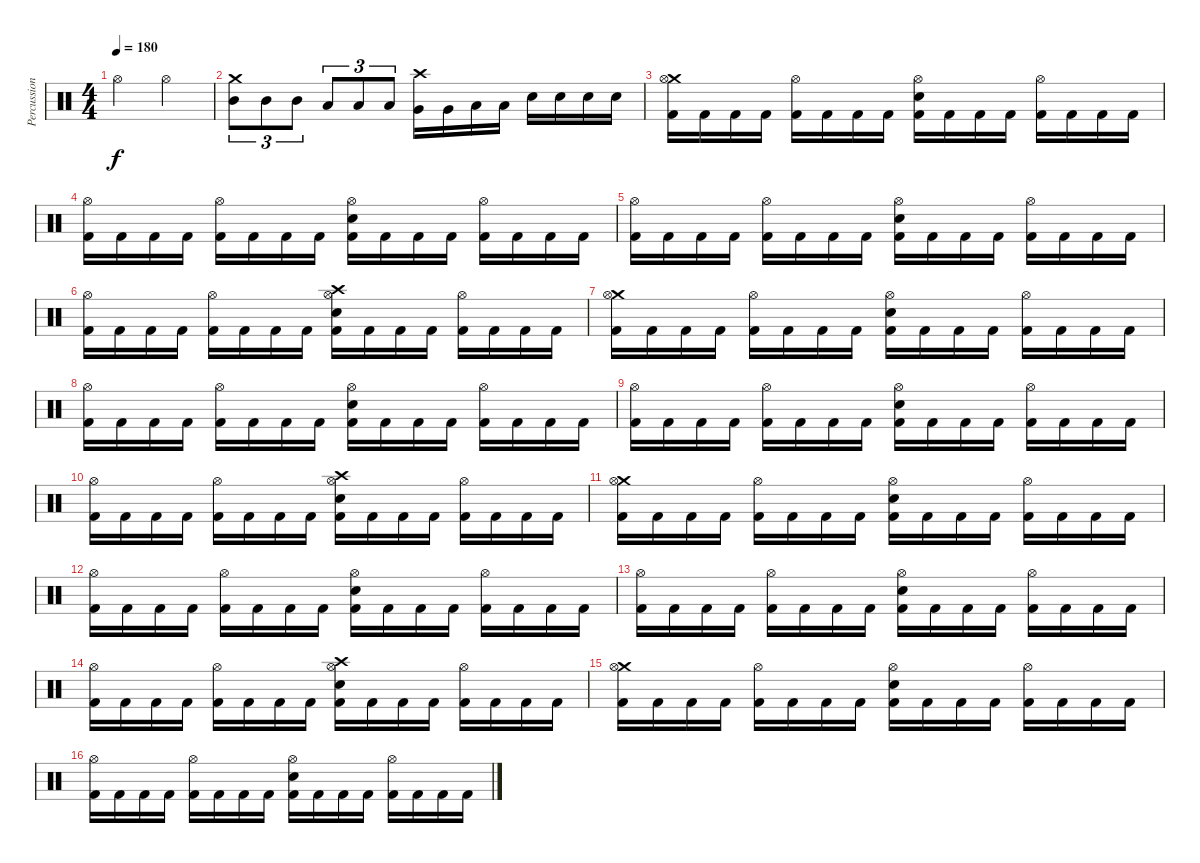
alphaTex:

\track ("Percussion" "Percussion") {instrument percussion}
\staff {score}
\articulation defaults
\ts (4 4)
\tempo 180
\clef neutral
\ks c "Hi-Hat (open)".2{dy f} "Hi-Hat (open)".2
|
("Crash medium (hit)" "Mid Tom (hit)").8{tu (3 2)} "Mid Tom (hit)".8{tu (3 2)} "Mid Tom (hit)".8{tu (3 2)} "Low Tom (hit)".8{tu (3 2)} "Low Tom (hit)".8{tu (3 2)} "Low Tom (hit)".8{tu (3 2)} ("Crash high (hit)" "Very Low Tom (hit)").16 "Very Low Tom (hit)".16 "Low Floor Tom (hit)".16 "Low Floor Tom (hit)".16 "Electric Snare (hit)".16 "Electric Snare (hit)".16 "Electric Snare (hit)".16 "Electric Snare (hit)".16 |
("Crash medium (hit)" "Hi-Hat (open)" "Kick (hit) 2").16 "Kick (hit) 2".16 "Kick (hit) 2".16 "Kick (hit) 2".16 ("Hi-Hat (open)" "Kick (hit) 2").16 "Kick (hit) 2".16 "Kick (hit) 2".16 "Kick (hit) 2".16 ("Hi-Hat (open)" "Electric Snare (hit)" "Kick (hit) 2").16 "Kick (hit) 2".16 "Kick (hit) 2".16 "Kick (hit) 2".16 ("Hi-Hat (open)" "Kick (hit) 2").16 "Kick (hit) 2".16 "Kick (hit) 2".16 "Kick (hit) 2".16 |
("Hi-Hat (open)" "Kick (hit) 2").16 "Kick (hit) 2".16 "Kick (hit) 2".16 "Kick (hit) 2".16 ("Hi-Hat (open)" "Kick (hit) 2").16 "Kick (hit) 2".16 "Kick (hit) 2".16 "Kick (hit) 2".16 ("Hi-Hat (open)" "Electric Snare (hit)" "Kick (hit) 2").16 "Kick (hit) 2".16 "Kick (hit) 2".16 "Kick (hit) 2".16 ("Hi-Hat (open)" "Kick (hit) 2").16 "Kick (hit) 2".16 "Kick (hit) 2".16 "Kick (hit) 2".16 |
("Hi-Hat (open)" "Kick (hit) 2").16 "Kick (hit) 2".16 "Kick (hit) 2".16 "Kick (hit) 2".16 ("Hi-Hat (open)" "Kick (hit) 2").16 "Kick (hit) 2".16 "Kick (hit) 2".16 "Kick (hit) 2".16 ("Hi-Hat (open)" "Electric Snare (hit)" "Kick (hit) 2").16 "Kick (hit) 2".16 "Kick (hit) 2".16 "Kick (hit) 2".16 ("Hi-Hat (open)" "Kick (hit) 2").16 "Kick (hit) 2".16 "Kick (hit) 2".16 "Kick (hit) 2".16 |
("Hi-Hat (open)" "Kick (hit) 2").16 "Kick (hit) 2".16 "Kick (hit) 2".16 "Kick (hit) 2".16 ("Hi-Hat (open)" "Kick (hit) 2").16 "Kick (hit) 2".16 "Kick (hit) 2".16 "Kick (hit) 2".16 ("Crash high (hit)" "Hi-Hat (open)" "Electric Snare (hit)" "Kick (hit) 2").16 "Kick (hit) 2".16 "Kick (hit) 2".16 "Kick (hit) 2".16 ("Hi-Hat (open)" "Kick (hit) 2").16 "Kick (hit) 2".16 "Kick (hit) 2".16 "Kick (hit) 2".16 |
("Crash medium (hit)" "Hi-Hat (open)" "Kick (hit) 2").16 "Kick (hit) 2".16 "Kick (hit) 2".16 "Kick (hit) 2".16 ("Hi-Hat (open)" "Kick (hit) 2").16 "Kick (hit) 2".16 "Kick (hit) 2".16 "Kick (hit) 2".16 ("Hi-Hat (open)" "Electric Snare (hit)" "Kick (hit) 2").16 "Kick (hit) 2".16 "Kick (hit) 2".16 "Kick (hit) 2".16 ("Hi-Hat (open)" "Kick (hit) 2").16 "Kick (hit) 2".16 "Kick (hit) 2".16 "Kick (hit) 2".16 |
("Hi-Hat (open)" "Kick (hit) 2").16 "Kick (hit) 2".16 "Kick (hit) 2".16 "Kick (hit) 2".16 ("Hi-Hat (open)" "Kick (hit) 2").16 "Kick (hit) 2".16 "Kick (hit) 2".16 "Kick (hit) 2".16 ("Hi-Hat (open)" "Electric Snare (hit)" "Kick (hit) 2").16 "Kick (hit) 2".16 "Kick (hit) 2".16 "Kick (hit) 2".16 ("Hi-Hat (open)" "Kick (hit) 2").16 "Kick (hit) 2".16 "Kick (hit) 2".16 "Kick (hit) 2".16 |
("Hi-Hat (open)" "Kick (hit) 2").16 "Kick (hit) 2".16 "Kick (hit) 2".16 "Kick (hit) 2".16 ("Hi-Hat (open)" "Kick (hit) 2").16 "Kick (hit) 2".16 "Kick (hit) 2".16 "Kick (hit) 2".16 ("Hi-Hat (open)" "Electric Snare (hit)" "Kick (hit) 2").16 "Kick (hit) 2".16 "Kick (hit) 2".16 "Kick (hit) 2".16 ("Hi-Hat (open)" "Kick (hit) 2").16 "Kick (hit) 2".16 "Kick (hit) 2".16 "Kick (hit) 2".16 |
("Hi-Hat (open)" "Kick (hit) 2").16 "Kick (hit) 2".16 "Kick (hit) 2".16 "Kick (hit) 2".16 ("Hi-Hat (open)" "Kick (hit) 2").16 "Kick (hit) 2".16 "Kick (hit) 2".16 "Kick (hit) 2".16 ("Crash high (hit)" "Hi-Hat (open)" "Electric Snare (hit)" "Kick (hit) 2").16 "Kick (hit) 2".16 "Kick (hit) 2".16 "Kick (hit) 2".16 ("Hi-Hat (open)" "Kick (hit) 2").16 "Kick (hit) 2".16 "Kick (hit) 2".16 "Kick (hit) 2".16 |
("Crash medium (hit)" "Hi-Hat (open)" "Kick (hit) 2").16 "Kick (hit) 2".16 "Kick (hit) 2".16 "Kick (hit) 2".16 ("Hi-Hat (open)" "Kick (hit) 2").16 "Kick (hit) 2".16 "Kick (hit) 2".16 "Kick (hit) 2".16 ("Hi-Hat (open)" "Electric Snare (hit)" "Kick (hit) 2").16 "Kick (hit) 2".16 "Kick (hit) 2".16 "Kick (hit) 2".16 ("Hi-Hat (open)" "Kick (hit) 2").16 "Kick (hit) 2".16 "Kick (hit) 2".16 "Kick (hit) 2".16 |
("Hi-Hat (open)" "Kick (hit) 2").16 "Kick (hit) 2".16 "Kick (hit) 2".16 "Kick (hit) 2".16 ("Hi-Hat (open)" "Kick (hit) 2").16 "Kick (hit) 2".16 "Kick (hit) 2".16 "Kick (hit) 2".16 ("Hi-Hat (open)" "Electric Snare (hit)" "Kick (hit) 2").16 "Kick (hit) 2".16 "Kick (hit) 2".16 "Kick (hit) 2".16 ("Hi-Hat (open)" "Kick (hit) 2").16 "Kick (hit) 2".16 "Kick (hit) 2".16 "Kick (hit) 2".16 |
("Hi-Hat (open)" "Kick (hit) 2").16 "Kick (hit) 2".16 "Kick (hit) 2".16 "Kick (hit) 2".16 ("Hi-Hat (open)" "Kick (hit) 2").16 "Kick (hit) 2".16 "Kick (hit) 2".16 "Kick (hit) 2".16 ("Hi-Hat (open)" "Electric Snare (hit)" "Kick (hit) 2").16 "Kick (hit) 2".16 "Kick (hit) 2".16 "Kick (hit) 2".16 ("Hi-Hat (open)" "Kick (hit) 2").16 "Kick (hit) 2".16 "Kick (hit) 2".16 "Kick (hit) 2".16 |
("Hi-Hat (open)" "Kick (hit) 2").16 "Kick (hit) 2".16 "Kick (hit) 2".16 "Kick (hit) 2".16 ("Hi-Hat (open)" "Kick (hit) 2").16 "Kick (hit) 2".16 "Kick (hit) 2".16 "Kick (hit) 2".16 ("Crash high (hit)" "Hi-Hat (open)" "Electric Snare (hit)" "Kick (hit) 2").16 "Kick (hit) 2".16 "Kick (hit) 2".16 "Kick (hit) 2".16 ("Hi-Hat (open)" "Kick (hit) 2").16 "Kick (hit) 2".16 "Kick (hit) 2".16 "Kick (hit) 2".16 |
("Crash medium (hit)" "Hi-Hat (open)" "Kick (hit) 2").16 "Kick (hit) 2".16 "Kick (hit) 2".16 "Kick (hit) 2".16 ("Hi-Hat (open)" "Kick (hit) 2").16 "Kick (hit) 2".16 "Kick (hit) 2".16 "Kick (hit) 2".16 ("Hi-Hat (open)" "Electric Snare (hit)" "Kick (hit) 2").16 "Kick (hit) 2".16 "Kick (hit) 2".16 "Kick (hit) 2".16 ("Hi-Hat (open)" "Kick (hit) 2").16 "Kick (hit) 2".16 "Kick (hit) 2".16 "Kick (hit) 2".16 |
("Hi-Hat (open)" "Kick (hit) 2").16 "Kick (hit) 2".16 "Kick (hit) 2".16 "Kick (hit) 2".16 ("Hi-Hat (open)" "Kick (hit) 2").16 "Kick (hit) 2".16 "Kick (hit) 2".16 "Kick (hit) 2".16 ("Hi-Hat (open)" "Electric Snare (hit)" "Kick (hit) 2").16 "Kick (hit) 2".16 "Kick (hit) 2".16 "Kick (hit) 2".16 ("Hi-Hat (open)" "Kick (hit) 2").16 "Kick (hit) 2".16 "Kick (hit) 2".16 "Kick (hit) 2".16
